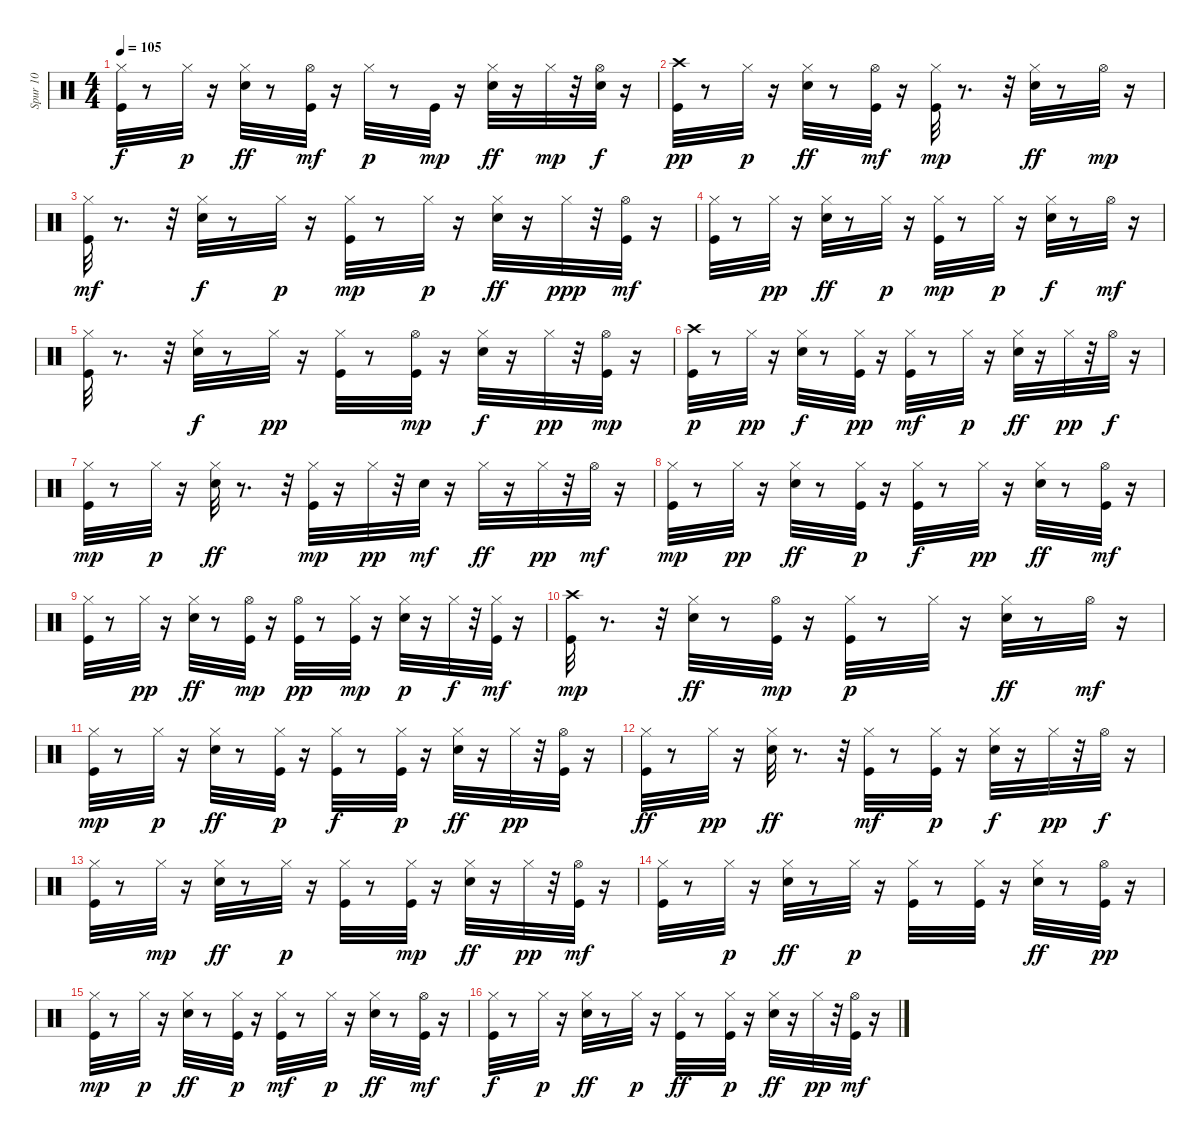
\track ("Spur 10" "Spur 10") {instrument percussion}
\staff {score}
\articulation defaults
\ts (4 4)
\tempo 105
\clef neutral
\ks c
("Kick (hit)" "Hi-Hat (closed)").32{dy f} r.8 "Hi-Hat (closed)".32{dy p} r.16 ("Snare (hit) 2" "Hi-Hat (closed)").32{dy ff} r.8 ("Kick (hit)" "Hi-Hat (open)").32{dy mf} r.16 "Hi-Hat (closed)".32{dy p} r.8 "Kick (hit)".32{dy mp} r.16 ("Snare (hit) 2" "Hi-Hat (closed)").32{dy ff} r.16 "Hi-Hat (closed)".32{dy mp} r.32 ("Snare (hit) 2" "Hi-Hat (open)").32{dy f} r.16 |
("Kick (hit)" "Crash high (hit)").32{dy pp} r.8 "Hi-Hat (closed)".32{dy p} r.16 ("Snare (hit) 2" "Hi-Hat (closed)").32{dy ff} r.8 ("Kick (hit)" "Hi-Hat (open)").32{dy mf} r.16 ("Kick (hit)" "Hi-Hat (closed)").32{dy mp} r.8{d} r.32 ("Snare (hit) 2" "Hi-Hat (closed)").32{dy ff} r.8 "Hi-Hat (open)".32{dy mp} r.16 |
("Kick (hit)" "Hi-Hat (closed)").32{dy mf} r.8{d} r.32 ("Snare (hit) 2" "Hi-Hat (closed)").32{dy f} r.8 "Hi-Hat (closed)".32{dy p} r.16 ("Kick (hit)" "Hi-Hat (closed)").32{dy mp} r.8 "Hi-Hat (closed)".32{dy p} r.16 ("Snare (hit) 2" "Hi-Hat (closed)").32{dy ff} r.16 "Hi-Hat (closed)".32{dy ppp} r.32 ("Kick (hit)" "Hi-Hat (open)").32{dy mf} r.16 |
("Kick (hit)" "Hi-Hat (closed)").32 r.8 "Hi-Hat (closed)".32{dy pp} r.16 ("Snare (hit) 2" "Hi-Hat (closed)").32{dy ff} r.8 "Hi-Hat (closed)".32{dy p} r.16 ("Kick (hit)" "Hi-Hat (closed)").32{dy mp} r.8 "Hi-Hat (closed)".32{dy p} r.16 ("Snare (hit) 2" "Hi-Hat (closed)").32{dy f} r.8 "Hi-Hat (open)".32{dy mf} r.16 |
("Kick (hit)" "Hi-Hat (closed)").32 r.8{d} r.32 ("Snare (hit) 2" "Hi-Hat (closed)").32{dy f} r.8 "Hi-Hat (closed)".32{dy pp} r.16 ("Kick (hit)" "Hi-Hat (closed)").32 r.8 ("Kick (hit)" "Hi-Hat (open)").32{dy mp} r.16 ("Snare (hit) 2" "Hi-Hat (closed)").32{dy f} r.16 "Hi-Hat (closed)".32{dy pp} r.32 ("Kick (hit)" "Hi-Hat (open)").32{dy mp} r.16 |
("Kick (hit)" "Crash high (hit)").32{dy p} r.8 "Hi-Hat (closed)".32{dy pp} r.16 ("Snare (hit) 2" "Hi-Hat (closed)").32{dy f} r.8 ("Kick (hit)" "Hi-Hat (closed)").32{dy pp} r.16 ("Kick (hit)" "Hi-Hat (closed)").32{dy mf} r.8 "Hi-Hat (closed)".32{dy p} r.16 ("Snare (hit) 2" "Hi-Hat (closed)").32{dy ff} r.16 "Hi-Hat (closed)".32{dy pp} r.32 "Hi-Hat (open)".32{dy f} r.16 |
("Kick (hit)" "Hi-Hat (closed)").32{dy mp} r.8 "Hi-Hat (closed)".32{dy p} r.16 ("Snare (hit) 2" "Hi-Hat (closed)").32{dy ff} r.8{d} r.32 ("Kick (hit)" "Hi-Hat (closed)").32{dy mp} r.16 "Hi-Hat (closed)".32{dy pp} r.32 "Snare (hit) 2".32{dy mf} r.16 "Hi-Hat (closed)".32{dy ff} r.16 "Hi-Hat (closed)".32{dy pp} r.32 "Hi-Hat (open)".32{dy mf} r.16 |
("Kick (hit)" "Hi-Hat (closed)").32{dy mp} r.8 "Hi-Hat (closed)".32{dy pp} r.16 ("Snare (hit) 2" "Hi-Hat (closed)").32{dy ff} r.8 ("Kick (hit)" "Hi-Hat (closed)").32{dy p} r.16 ("Kick (hit)" "Hi-Hat (closed)").32{dy f} r.8 "Hi-Hat (closed)".32{dy pp} r.16 ("Snare (hit) 2" "Hi-Hat (closed)").32{dy ff} r.8 ("Kick (hit)" "Hi-Hat (open)").32{dy mf} r.16 |
("Kick (hit)" "Hi-Hat (closed)").32 r.8 "Hi-Hat (closed)".32{dy pp} r.16 ("Snare (hit) 2" "Hi-Hat (closed)").32{dy ff} r.8 ("Kick (hit)" "Hi-Hat (open)").32{dy mp} r.16 ("Kick (hit)" "Hi-Hat (open)").32{dy pp} r.8 ("Kick (hit)" "Hi-Hat (closed)").32{dy mp} r.16 ("Snare (hit) 2" "Hi-Hat (closed)").32{dy p} r.16 "Hi-Hat (closed)".32{dy f} r.32 ("Kick (hit)" "Hi-Hat (closed)").32{dy mf} r.16 |
("Kick (hit)" "Crash high (hit)").32{dy mp} r.8{d} r.32 ("Snare (hit) 2" "Hi-Hat (closed)").32{dy ff} r.8 ("Kick (hit)" "Hi-Hat (open)").32{dy mp} r.16 ("Kick (hit)" "Hi-Hat (closed)").32{dy p} r.8 "Hi-Hat (closed)".32 r.16 ("Snare (hit) 2" "Hi-Hat (closed)").32{dy ff} r.8 "Hi-Hat (open)".32{dy mf} r.16 |
("Kick (hit)" "Hi-Hat (closed)").32{dy mp} r.8 "Hi-Hat (closed)".32{dy p} r.16 ("Snare (hit) 2" "Hi-Hat (closed)").32{dy ff} r.8 ("Kick (hit)" "Hi-Hat (closed)").32{dy p} r.16 ("Kick (hit)" "Hi-Hat (closed)").32{dy f} r.8 ("Kick (hit)" "Hi-Hat (closed)").32{dy p} r.16 ("Snare (hit) 2" "Hi-Hat (closed)").32{dy ff} r.16 "Hi-Hat (closed)".32{dy pp} r.32 ("Kick (hit)" "Hi-Hat (open)").32 r.16 |
("Kick (hit)" "Hi-Hat (closed)").32{dy ff} r.8 "Hi-Hat (closed)".32{dy pp} r.16 ("Snare (hit) 2" "Hi-Hat (closed)").32{dy ff} r.8{d} r.32 ("Kick (hit)" "Hi-Hat (closed)").32{dy mf} r.8 ("Kick (hit)" "Hi-Hat (closed)").32{dy p} r.16 ("Snare (hit) 2" "Hi-Hat (closed)").32{dy f} r.16 "Hi-Hat (closed)".32{dy pp} r.32 "Hi-Hat (open)".32{dy f} r.16 |
("Kick (hit)" "Hi-Hat (closed)").32 r.8 "Hi-Hat (closed)".32{dy mp} r.16 ("Snare (hit) 2" "Hi-Hat (closed)").32{dy ff} r.8 "Hi-Hat (closed)".32{dy p} r.16 ("Kick (hit)" "Hi-Hat (closed)").32 r.8 ("Kick (hit)" "Hi-Hat (closed)").32{dy mp} r.16 ("Snare (hit) 2" "Hi-Hat (closed)").32{dy ff} r.16 "Hi-Hat (closed)".32{dy pp} r.32 ("Kick (hit)" "Hi-Hat (open)").32{dy mf} r.16 |
("Kick (hit)" "Hi-Hat (closed)").32 r.8 "Hi-Hat (closed)".32{dy p} r.16 ("Snare (hit) 2" "Hi-Hat (closed)").32{dy ff} r.8 "Hi-Hat (closed)".32{dy p} r.16 ("Kick (hit)" "Hi-Hat (closed)").32 r.8 ("Kick (hit)" "Hi-Hat (closed)").32 r.16 ("Snare (hit) 2" "Hi-Hat (closed)").32{dy ff} r.8 ("Kick (hit)" "Hi-Hat (open)").32{dy pp} r.16 |
("Kick (hit)" "Hi-Hat (closed)").32{dy mp} r.8 "Hi-Hat (closed)".32{dy p} r.16 ("Snare (hit) 2" "Hi-Hat (closed)").32{dy ff} r.8 ("Kick (hit)" "Hi-Hat (closed)").32{dy p} r.16 ("Kick (hit)" "Hi-Hat (closed)").32{dy mf} r.8 "Hi-Hat (closed)".32{dy p} r.16 ("Snare (hit) 2" "Hi-Hat (closed)").32{dy ff} r.8 ("Kick (hit)" "Hi-Hat (open)").32{dy mf} r.16 |
("Kick (hit)" "Hi-Hat (closed)").32{dy f} r.8 "Hi-Hat (closed)".32{dy p} r.16 ("Snare (hit) 2" "Hi-Hat (closed)").32{dy ff} r.8 "Hi-Hat (closed)".32{dy p} r.16 ("Kick (hit)" "Hi-Hat (closed)").32{dy ff} r.8 ("Kick (hit)" "Hi-Hat (closed)").32{dy p} r.16 ("Snare (hit) 2" "Hi-Hat (closed)").32{dy ff} r.16 "Hi-Hat (closed)".32{dy pp} r.32 ("Kick (hit)" "Hi-Hat (open)").32{dy mf} r.16
